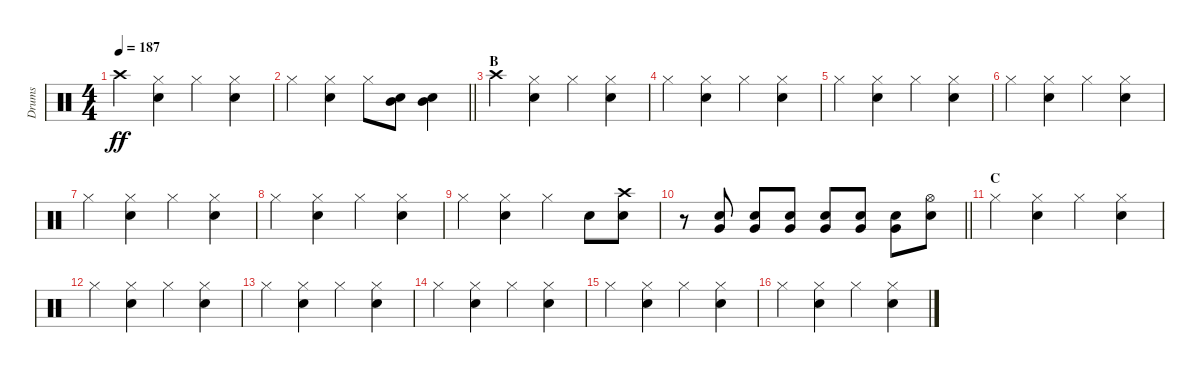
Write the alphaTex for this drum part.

\track ("Drums" "Drums") {instrument percussion}
\staff {score}
\articulation defaults
\ts (4 4)
\tempo 187
\clef neutral
\ks c "Crash high (hit)".4{dy ff}
("Hi-Hat (closed)" "Snare (hit) 2").4 "Hi-Hat (closed)".4 ("Hi-Hat (closed)" "Snare (hit) 2").4 |
\barLineRight lightlight "Hi-Hat (closed)".4
("Hi-Hat (closed)" "Snare (hit) 2").4 "Hi-Hat (closed)".8 ("Snare (hit) 2" "Mid Tom (hit)").8 ("Mid Tom (hit)" "Snare (hit) 2").4 |
\section ("" "B")
"Crash high (hit)".4 ("Hi-Hat (closed)" "Snare (hit) 2").4 "Hi-Hat (closed)".4 ("Snare (hit) 2" "Hi-Hat (closed)").4 |
"Hi-Hat (closed)".4 ("Hi-Hat (closed)" "Snare (hit) 2").4 "Hi-Hat (closed)".4 ("Hi-Hat (closed)" "Snare (hit) 2").4 |
"Hi-Hat (closed)".4 ("Hi-Hat (closed)" "Snare (hit) 2").4 "Hi-Hat (closed)".4 ("Hi-Hat (closed)" "Snare (hit) 2").4 |
"Hi-Hat (closed)".4 ("Hi-Hat (closed)" "Snare (hit) 2").4 "Hi-Hat (closed)".4 ("Hi-Hat (closed)" "Snare (hit) 2").4 |
"Hi-Hat (closed)".4 ("Hi-Hat (closed)" "Snare (hit) 2").4 "Hi-Hat (closed)".4 ("Hi-Hat (closed)" "Snare (hit) 2").4 |
"Hi-Hat (closed)".4 ("Hi-Hat (closed)" "Snare (hit) 2").4 "Hi-Hat (closed)".4 ("Hi-Hat (closed)" "Snare (hit) 2").4 |
"Hi-Hat (closed)".4 ("Hi-Hat (closed)" "Snare (hit) 2").4 "Hi-Hat (closed)".4 "Snare (hit) 2".8 ("Snare (hit) 2" "Crash high (hit)").8 |
\barLineRight lightlight
r.8 ("Snare (hit) 2" "Very Low Tom (hit)").8 ("Very Low Tom (hit)" "Snare (hit) 2").8 ("Very Low Tom (hit)" "Snare (hit) 2").8 ("Very Low Tom (hit)" "Snare (hit) 2").8 ("Very Low Tom (hit)" "Snare (hit) 2").8 ("Very Low Tom (hit)" "Snare (hit) 2").8 ("Snare (hit) 2" "Hi-Hat (open)").8 |
\section ("" "C")
"Hi-Hat (closed)".4 ("Hi-Hat (closed)" "Snare (hit) 2").4 "Hi-Hat (closed)".4 ("Hi-Hat (closed)" "Snare (hit) 2").4 |
"Hi-Hat (closed)".4 ("Hi-Hat (closed)" "Snare (hit) 2").4 "Hi-Hat (closed)".4 ("Hi-Hat (closed)" "Snare (hit) 2").4 |
"Hi-Hat (closed)".4 ("Hi-Hat (closed)" "Snare (hit) 2").4 "Hi-Hat (closed)".4 ("Hi-Hat (closed)" "Snare (hit) 2").4 |
"Hi-Hat (closed)".4 ("Hi-Hat (closed)" "Snare (hit) 2").4 "Hi-Hat (closed)".4 ("Hi-Hat (closed)" "Snare (hit) 2").4 |
"Hi-Hat (closed)".4 ("Hi-Hat (closed)" "Snare (hit) 2").4 "Hi-Hat (closed)".4 ("Hi-Hat (closed)" "Snare (hit) 2").4 |
"Hi-Hat (closed)".4 ("Hi-Hat (closed)" "Snare (hit) 2").4 "Hi-Hat (closed)".4 ("Hi-Hat (closed)" "Snare (hit) 2").4
